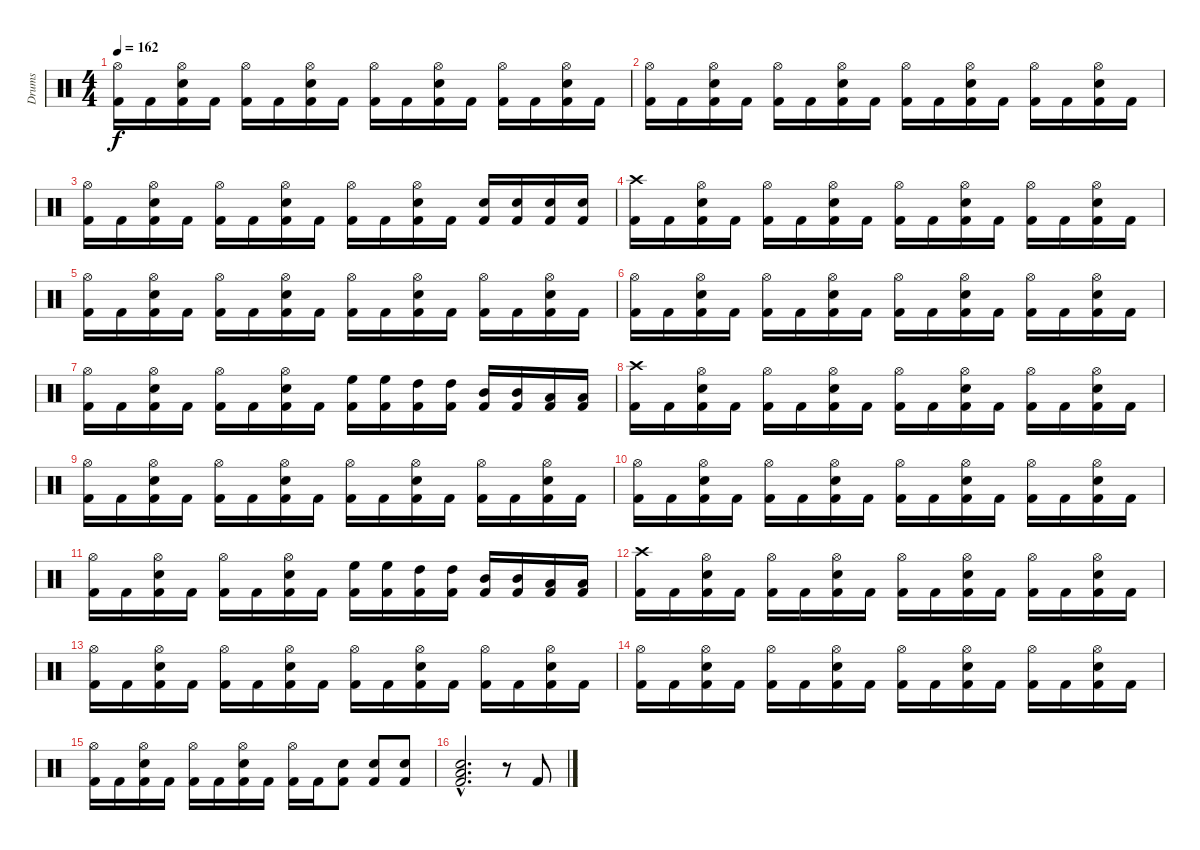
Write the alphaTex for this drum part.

\track ("Drums" "Drums") {instrument percussion}
\staff {score}
\articulation defaults
\ts (4 4)
\tempo 162
\clef neutral
\ks c
("Kick (hit) 2" "Hi-Hat (open)").16{dy f} "Kick (hit) 2".16 ("Kick (hit) 2" "Snare (hit) 2" "Hi-Hat (open)").16 "Kick (hit) 2".16 ("Kick (hit) 2" "Hi-Hat (open)").16 "Kick (hit) 2".16 ("Kick (hit) 2" "Snare (hit) 2" "Hi-Hat (open)").16 "Kick (hit) 2".16 ("Kick (hit) 2" "Hi-Hat (open)").16 "Kick (hit) 2".16 ("Kick (hit) 2" "Snare (hit) 2" "Hi-Hat (open)").16 "Kick (hit) 2".16 ("Kick (hit) 2" "Hi-Hat (open)").16 "Kick (hit) 2".16 ("Kick (hit) 2" "Snare (hit) 2" "Hi-Hat (open)").16 "Kick (hit) 2".16 |
("Kick (hit) 2" "Hi-Hat (open)").16 "Kick (hit) 2".16 ("Kick (hit) 2" "Snare (hit) 2" "Hi-Hat (open)").16 "Kick (hit) 2".16 ("Kick (hit) 2" "Hi-Hat (open)").16 "Kick (hit) 2".16 ("Kick (hit) 2" "Snare (hit) 2" "Hi-Hat (open)").16 "Kick (hit) 2".16 ("Kick (hit) 2" "Hi-Hat (open)").16 "Kick (hit) 2".16 ("Kick (hit) 2" "Snare (hit) 2" "Hi-Hat (open)").16 "Kick (hit) 2".16 ("Kick (hit) 2" "Hi-Hat (open)").16 "Kick (hit) 2".16 ("Kick (hit) 2" "Snare (hit) 2" "Hi-Hat (open)").16 "Kick (hit) 2".16 |
("Kick (hit) 2" "Hi-Hat (open)").16 "Kick (hit) 2".16 ("Kick (hit) 2" "Snare (hit) 2" "Hi-Hat (open)").16 "Kick (hit) 2".16 ("Kick (hit) 2" "Hi-Hat (open)").16 "Kick (hit) 2".16 ("Kick (hit) 2" "Snare (hit) 2" "Hi-Hat (open)").16 "Kick (hit) 2".16 ("Kick (hit) 2" "Hi-Hat (open)").16 "Kick (hit) 2".16 ("Kick (hit) 2" "Snare (hit) 2" "Hi-Hat (open)").16 "Kick (hit) 2".16 ("Kick (hit) 2" "Snare (hit) 2").16 ("Kick (hit) 2" "Snare (hit) 2").16 ("Kick (hit) 2" "Snare (hit) 2").16 ("Kick (hit) 2" "Snare (hit) 2").16 |
("Kick (hit) 2" "Crash high (hit)").16 "Kick (hit) 2".16 ("Kick (hit) 2" "Snare (hit) 2" "Hi-Hat (open)").16 "Kick (hit) 2".16 ("Kick (hit) 2" "Hi-Hat (open)").16 "Kick (hit) 2".16 ("Kick (hit) 2" "Snare (hit) 2" "Hi-Hat (open)").16 "Kick (hit) 2".16 ("Kick (hit) 2" "Hi-Hat (open)").16 "Kick (hit) 2".16 ("Kick (hit) 2" "Snare (hit) 2" "Hi-Hat (open)").16 "Kick (hit) 2".16 ("Kick (hit) 2" "Hi-Hat (open)").16 "Kick (hit) 2".16 ("Kick (hit) 2" "Snare (hit) 2" "Hi-Hat (open)").16 "Kick (hit) 2".16 |
("Kick (hit) 2" "Hi-Hat (open)").16 "Kick (hit) 2".16 ("Kick (hit) 2" "Snare (hit) 2" "Hi-Hat (open)").16 "Kick (hit) 2".16 ("Kick (hit) 2" "Hi-Hat (open)").16 "Kick (hit) 2".16 ("Kick (hit) 2" "Snare (hit) 2" "Hi-Hat (open)").16 "Kick (hit) 2".16 ("Kick (hit) 2" "Hi-Hat (open)").16 "Kick (hit) 2".16 ("Kick (hit) 2" "Snare (hit) 2" "Hi-Hat (open)").16 "Kick (hit) 2".16 ("Kick (hit) 2" "Hi-Hat (open)").16 "Kick (hit) 2".16 ("Kick (hit) 2" "Snare (hit) 2" "Hi-Hat (open)").16 "Kick (hit) 2".16 |
("Kick (hit) 2" "Hi-Hat (open)").16 "Kick (hit) 2".16 ("Kick (hit) 2" "Snare (hit) 2" "Hi-Hat (open)").16 "Kick (hit) 2".16 ("Kick (hit) 2" "Hi-Hat (open)").16 "Kick (hit) 2".16 ("Kick (hit) 2" "Snare (hit) 2" "Hi-Hat (open)").16 "Kick (hit) 2".16 ("Kick (hit) 2" "Hi-Hat (open)").16 "Kick (hit) 2".16 ("Kick (hit) 2" "Snare (hit) 2" "Hi-Hat (open)").16 "Kick (hit) 2".16 ("Kick (hit) 2" "Hi-Hat (open)").16 "Kick (hit) 2".16 ("Kick (hit) 2" "Snare (hit) 2" "Hi-Hat (open)").16 "Kick (hit) 2".16 |
("Kick (hit) 2" "Hi-Hat (open)").16 "Kick (hit) 2".16 ("Kick (hit) 2" "Snare (hit) 2" "Hi-Hat (open)").16 "Kick (hit) 2".16 ("Kick (hit) 2" "Hi-Hat (open)").16 "Kick (hit) 2".16 ("Kick (hit) 2" "Snare (hit) 2" "Hi-Hat (open)").16 "Kick (hit) 2".16 ("Kick (hit) 2" "High Floor Tom (hit)").16 ("Kick (hit) 2" "High Floor Tom (hit)").16 ("Kick (hit) 2" "High Tom (hit)").16 ("Kick (hit) 2" "High Tom (hit)").16 ("Kick (hit) 2" "Mid Tom (hit)").16 ("Kick (hit) 2" "Mid Tom (hit)").16 ("Kick (hit) 2" "Low Tom (hit)").16 ("Kick (hit) 2" "Low Tom (hit)").16 |
("Kick (hit) 2" "Crash high (hit)").16 "Kick (hit) 2".16 ("Kick (hit) 2" "Snare (hit) 2" "Hi-Hat (open)").16 "Kick (hit) 2".16 ("Kick (hit) 2" "Hi-Hat (open)").16 "Kick (hit) 2".16 ("Kick (hit) 2" "Snare (hit) 2" "Hi-Hat (open)").16 "Kick (hit) 2".16 ("Kick (hit) 2" "Hi-Hat (open)").16 "Kick (hit) 2".16 ("Kick (hit) 2" "Snare (hit) 2" "Hi-Hat (open)").16 "Kick (hit) 2".16 ("Kick (hit) 2" "Hi-Hat (open)").16 "Kick (hit) 2".16 ("Kick (hit) 2" "Snare (hit) 2" "Hi-Hat (open)").16 "Kick (hit) 2".16 |
("Kick (hit) 2" "Hi-Hat (open)").16 "Kick (hit) 2".16 ("Kick (hit) 2" "Snare (hit) 2" "Hi-Hat (open)").16 "Kick (hit) 2".16 ("Kick (hit) 2" "Hi-Hat (open)").16 "Kick (hit) 2".16 ("Kick (hit) 2" "Snare (hit) 2" "Hi-Hat (open)").16 "Kick (hit) 2".16 ("Kick (hit) 2" "Hi-Hat (open)").16 "Kick (hit) 2".16 ("Kick (hit) 2" "Snare (hit) 2" "Hi-Hat (open)").16 "Kick (hit) 2".16 ("Kick (hit) 2" "Hi-Hat (open)").16 "Kick (hit) 2".16 ("Kick (hit) 2" "Snare (hit) 2" "Hi-Hat (open)").16 "Kick (hit) 2".16 |
("Kick (hit) 2" "Hi-Hat (open)").16 "Kick (hit) 2".16 ("Kick (hit) 2" "Snare (hit) 2" "Hi-Hat (open)").16 "Kick (hit) 2".16 ("Kick (hit) 2" "Hi-Hat (open)").16 "Kick (hit) 2".16 ("Kick (hit) 2" "Snare (hit) 2" "Hi-Hat (open)").16 "Kick (hit) 2".16 ("Kick (hit) 2" "Hi-Hat (open)").16 "Kick (hit) 2".16 ("Kick (hit) 2" "Snare (hit) 2" "Hi-Hat (open)").16 "Kick (hit) 2".16 ("Kick (hit) 2" "Hi-Hat (open)").16 "Kick (hit) 2".16 ("Kick (hit) 2" "Snare (hit) 2" "Hi-Hat (open)").16 "Kick (hit) 2".16 |
("Kick (hit) 2" "Hi-Hat (open)").16 "Kick (hit) 2".16 ("Kick (hit) 2" "Snare (hit) 2" "Hi-Hat (open)").16 "Kick (hit) 2".16 ("Kick (hit) 2" "Hi-Hat (open)").16 "Kick (hit) 2".16 ("Kick (hit) 2" "Snare (hit) 2" "Hi-Hat (open)").16 "Kick (hit) 2".16 ("Kick (hit) 2" "High Floor Tom (hit)").16 ("Kick (hit) 2" "High Floor Tom (hit)").16 ("Kick (hit) 2" "High Tom (hit)").16 ("Kick (hit) 2" "High Tom (hit)").16 ("Kick (hit) 2" "Mid Tom (hit)").16 ("Kick (hit) 2" "Mid Tom (hit)").16 ("Kick (hit) 2" "Low Tom (hit)").16 ("Kick (hit) 2" "Low Tom (hit)").16 |
("Kick (hit) 2" "Crash high (hit)").16 "Kick (hit) 2".16 ("Kick (hit) 2" "Snare (hit) 2" "Hi-Hat (open)").16 "Kick (hit) 2".16 ("Kick (hit) 2" "Hi-Hat (open)").16 "Kick (hit) 2".16 ("Kick (hit) 2" "Snare (hit) 2" "Hi-Hat (open)").16 "Kick (hit) 2".16 ("Kick (hit) 2" "Hi-Hat (open)").16 "Kick (hit) 2".16 ("Kick (hit) 2" "Snare (hit) 2" "Hi-Hat (open)").16 "Kick (hit) 2".16 ("Kick (hit) 2" "Hi-Hat (open)").16 "Kick (hit) 2".16 ("Kick (hit) 2" "Snare (hit) 2" "Hi-Hat (open)").16 "Kick (hit) 2".16 |
("Kick (hit) 2" "Hi-Hat (open)").16 "Kick (hit) 2".16 ("Kick (hit) 2" "Snare (hit) 2" "Hi-Hat (open)").16 "Kick (hit) 2".16 ("Kick (hit) 2" "Hi-Hat (open)").16 "Kick (hit) 2".16 ("Kick (hit) 2" "Snare (hit) 2" "Hi-Hat (open)").16 "Kick (hit) 2".16 ("Kick (hit) 2" "Hi-Hat (open)").16 "Kick (hit) 2".16 ("Kick (hit) 2" "Snare (hit) 2" "Hi-Hat (open)").16 "Kick (hit) 2".16 ("Kick (hit) 2" "Hi-Hat (open)").16 "Kick (hit) 2".16 ("Kick (hit) 2" "Snare (hit) 2" "Hi-Hat (open)").16 "Kick (hit) 2".16 |
("Kick (hit) 2" "Hi-Hat (open)").16 "Kick (hit) 2".16 ("Kick (hit) 2" "Snare (hit) 2" "Hi-Hat (open)").16 "Kick (hit) 2".16 ("Kick (hit) 2" "Hi-Hat (open)").16 "Kick (hit) 2".16 ("Kick (hit) 2" "Snare (hit) 2" "Hi-Hat (open)").16 "Kick (hit) 2".16 ("Kick (hit) 2" "Hi-Hat (open)").16 "Kick (hit) 2".16 ("Kick (hit) 2" "Snare (hit) 2" "Hi-Hat (open)").16 "Kick (hit) 2".16 ("Kick (hit) 2" "Hi-Hat (open)").16 "Kick (hit) 2".16 ("Kick (hit) 2" "Snare (hit) 2" "Hi-Hat (open)").16 "Kick (hit) 2".16 |
("Kick (hit) 2" "Hi-Hat (open)").16 "Kick (hit) 2".16 ("Kick (hit) 2" "Snare (hit) 2" "Hi-Hat (open)").16 "Kick (hit) 2".16 ("Kick (hit) 2" "Hi-Hat (open)").16 "Kick (hit) 2".16 ("Kick (hit) 2" "Snare (hit) 2" "Hi-Hat (open)").16 "Kick (hit) 2".16 ("Kick (hit) 2" "Hi-Hat (open)").16 "Kick (hit) 2".16 ("Kick (hit) 2" "Snare (hit) 2").8 ("Kick (hit) 2" "Snare (hit) 2").8 ("Kick (hit) 2" "Snare (hit) 2").8 |
\section ("" "")
("Kick (hit) 2"{hac} "Snare (hit) 2"{hac} "Low Tom (hit)"{hac}).2{d} r.8 "Kick (hit) 2".8
